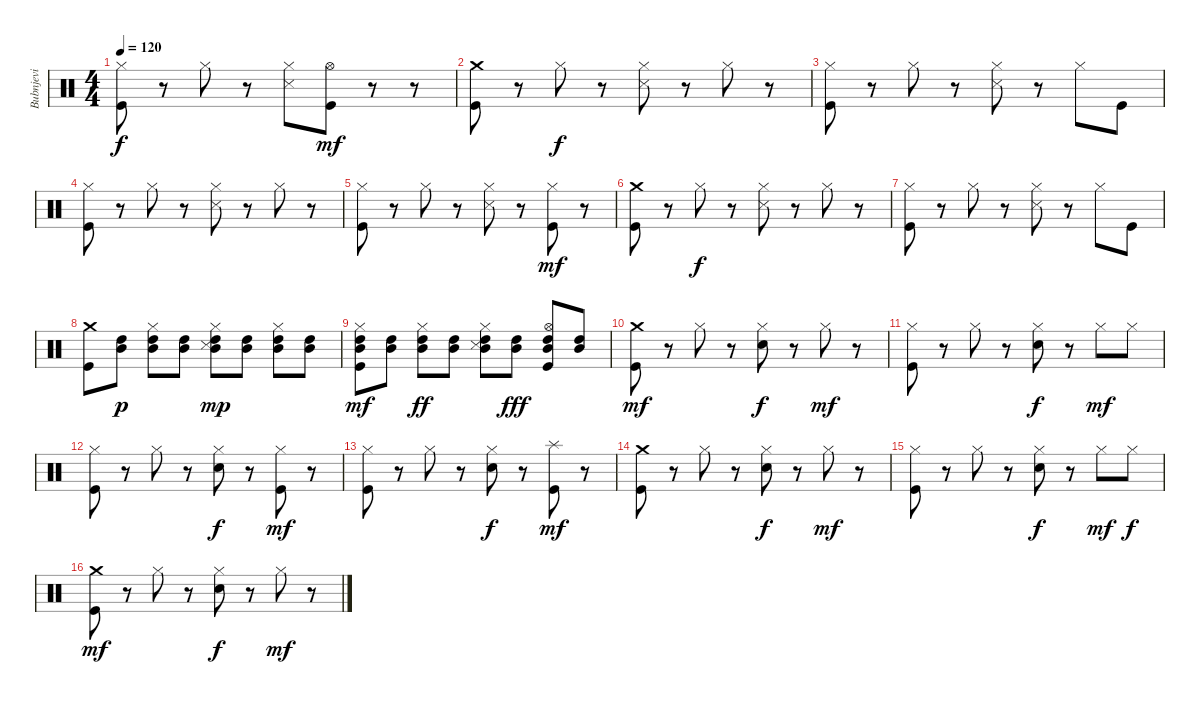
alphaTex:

\track ("Bubnjevi" "Bubnjevi") {instrument percussion}
\staff {score}
\articulation defaults
\ts (4 4)
\tempo 120
\clef neutral
\ks c
("Hi-Hat (closed)" "Kick (hit)").8{dy f} r.8 "Hi-Hat (closed)".8 r.8 ("Hi-Hat (closed)" "Snare (side stick) 3").8 ("Hi-Hat (open)" "Kick (hit)").8{dy mf} r.8 r.8 |
("Crash medium (hit)" "Kick (hit)").8 r.8 "Hi-Hat (closed)".8{dy f} r.8 ("Hi-Hat (closed)" "Snare (side stick) 3").8 r.8 "Hi-Hat (closed)".8 r.8 |
("Hi-Hat (closed)" "Kick (hit)").8 r.8 "Hi-Hat (closed)".8 r.8 ("Hi-Hat (closed)" "Snare (side stick) 3").8 r.8 "Hi-Hat (closed)".8 "Kick (hit)".8 |
("Hi-Hat (closed)" "Kick (hit)").8 r.8 "Hi-Hat (closed)".8 r.8 ("Hi-Hat (closed)" "Snare (side stick) 3").8 r.8 "Hi-Hat (closed)".8 r.8 |
("Hi-Hat (closed)" "Kick (hit)").8 r.8 "Hi-Hat (closed)".8 r.8 ("Hi-Hat (closed)" "Snare (side stick) 3").8 r.8 ("Hi-Hat (closed)" "Kick (hit)").8{dy mf} r.8 |
("Crash medium (hit)" "Kick (hit)").8 r.8 "Hi-Hat (closed)".8{dy f} r.8 ("Hi-Hat (closed)" "Snare (side stick) 3").8 r.8 "Hi-Hat (closed)".8 r.8 |
("Hi-Hat (closed)" "Kick (hit)").8 r.8 "Hi-Hat (closed)".8 r.8 ("Hi-Hat (closed)" "Snare (side stick) 3").8 r.8 "Hi-Hat (closed)".8 "Kick (hit)".8 |
("Crash medium (hit)" "Kick (hit)").8 ("Mid Tom (hit)" "High Tom (hit)").8{dy p} ("Hi-Hat (closed)" "Mid Tom (hit)" "High Tom (hit)").8 ("Mid Tom (hit)" "High Tom (hit)").8 ("Hi-Hat (closed)" "Snare (side stick) 3" "Mid Tom (hit)" "High Tom (hit)").8{dy mp} ("Mid Tom (hit)" "High Tom (hit)").8 ("Hi-Hat (closed)" "Mid Tom (hit)" "High Tom (hit)").8 ("Mid Tom (hit)" "High Tom (hit)").8 |
("Hi-Hat (closed)" "Kick (hit)" "Mid Tom (hit)" "High Tom (hit)").8{dy mf} ("Mid Tom (hit)" "High Tom (hit)").8 ("Hi-Hat (closed)" "Mid Tom (hit)" "High Tom (hit)").8{dy ff} ("Mid Tom (hit)" "High Tom (hit)").8 ("Hi-Hat (closed)" "Snare (side stick) 3" "Mid Tom (hit)" "High Tom (hit)").8 ("Mid Tom (hit)" "High Tom (hit)").8{dy fff} ("Hi-Hat (open)" "Kick (hit)" "Mid Tom (hit)" "High Tom (hit)").8 ("Mid Tom (hit)" "High Tom (hit)").8 |
("Crash medium (hit)" "Kick (hit)").8{dy mf} r.8 "Hi-Hat (closed)".8 r.8 ("Hi-Hat (closed)" "Snare (hit) 2").8{dy f} r.8 "Hi-Hat (closed)".8{dy mf} r.8 |
("Hi-Hat (closed)" "Kick (hit)").8 r.8 "Hi-Hat (closed)".8 r.8 ("Hi-Hat (closed)" "Snare (hit) 2").8{dy f} r.8 "Hi-Hat (closed)".8{dy mf} "Hi-Hat (closed)".8 |
("Hi-Hat (closed)" "Kick (hit)").8 r.8 "Hi-Hat (closed)".8 r.8 ("Hi-Hat (closed)" "Snare (hit) 2").8{dy f} r.8 ("Hi-Hat (closed)" "Kick (hit)").8{dy mf} r.8 |
("Hi-Hat (closed)" "Kick (hit)").8 r.8 "Hi-Hat (closed)".8 r.8 ("Hi-Hat (closed)" "Snare (hit) 2").8{dy f} r.8 ("Splash (hit)" "Kick (hit)").8{dy mf} r.8 |
("Crash medium (hit)" "Kick (hit)").8 r.8 "Hi-Hat (closed)".8 r.8 ("Hi-Hat (closed)" "Snare (hit) 2").8{dy f} r.8 "Hi-Hat (closed)".8{dy mf} r.8 |
("Hi-Hat (closed)" "Kick (hit)").8 r.8 "Hi-Hat (closed)".8 r.8 ("Hi-Hat (closed)" "Snare (hit) 2").8{dy f} r.8 "Hi-Hat (closed)".8{dy mf} "Hi-Hat (closed)".8{dy f} |
("Crash medium (hit)" "Kick (hit)").8{dy mf} r.8 "Hi-Hat (closed)".8 r.8 ("Hi-Hat (closed)" "Snare (hit) 2").8{dy f} r.8 "Hi-Hat (closed)".8{dy mf} r.8
